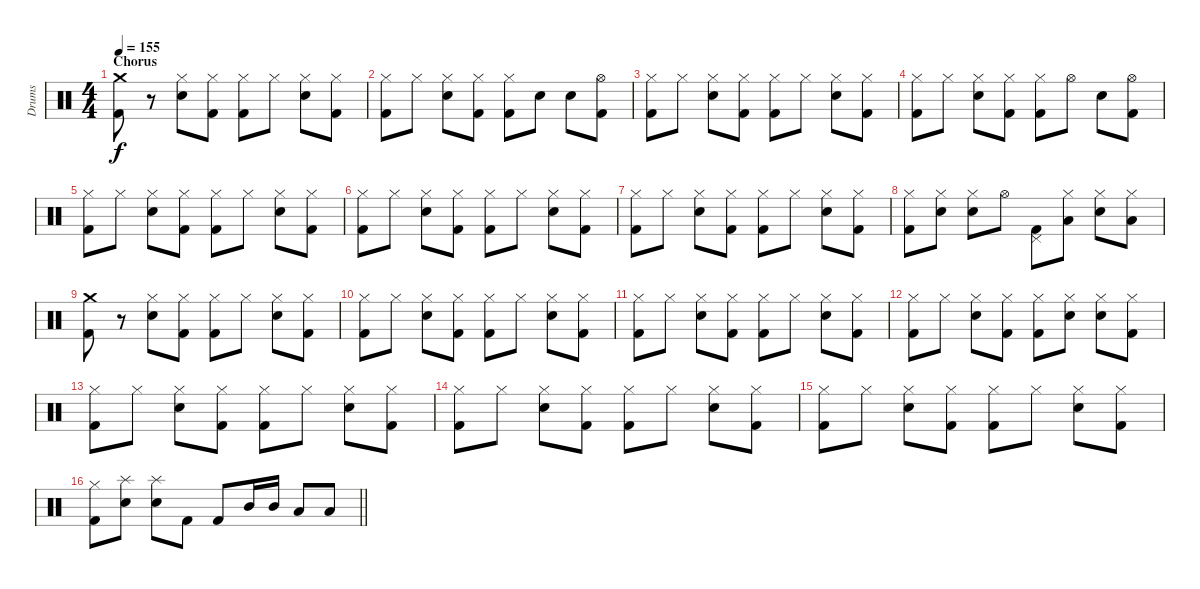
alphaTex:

\track ("Drums" "Drums") {instrument percussion}
\staff {score}
\articulation defaults
\ts (4 4)
\section ("" "Chorus")
\tempo 155
\clef neutral
\ks c
("Crash medium (hit)" "Kick (hit) 2").8{dy f} r.8 ("Hi-Hat (closed)" "Snare (hit) 2").8 ("Hi-Hat (closed)" "Kick (hit) 2").8 ("Hi-Hat (closed)" "Kick (hit) 2").8 "Hi-Hat (closed)".8 ("Hi-Hat (closed)" "Snare (hit) 2").8 ("Hi-Hat (closed)" "Kick (hit) 2").8 |
("Hi-Hat (closed)" "Kick (hit) 2").8 "Hi-Hat (closed)".8 ("Hi-Hat (closed)" "Snare (hit) 2").8 ("Hi-Hat (closed)" "Kick (hit) 2").8 ("Hi-Hat (closed)" "Kick (hit) 2").8 "Snare (hit) 2".8 "Snare (hit) 2".8 ("Hi-Hat (open)" "Kick (hit) 2").8 |
("Hi-Hat (closed)" "Kick (hit) 2").8 "Hi-Hat (closed)".8 ("Hi-Hat (closed)" "Snare (hit) 2").8 ("Hi-Hat (closed)" "Kick (hit) 2").8 ("Hi-Hat (closed)" "Kick (hit) 2").8 "Hi-Hat (closed)".8 ("Hi-Hat (closed)" "Snare (hit) 2").8 ("Hi-Hat (closed)" "Kick (hit) 2").8 |
("Hi-Hat (closed)" "Kick (hit) 2").8 "Hi-Hat (closed)".8 ("Hi-Hat (closed)" "Snare (hit) 2").8 ("Hi-Hat (closed)" "Kick (hit) 2").8 ("Hi-Hat (closed)" "Kick (hit) 2").8 "Hi-Hat (open)".8 "Snare (hit) 2".8 ("Hi-Hat (open)" "Kick (hit) 2").8 |
("Hi-Hat (closed)" "Kick (hit) 2").8 "Hi-Hat (closed)".8 ("Hi-Hat (closed)" "Snare (hit) 2").8 ("Hi-Hat (closed)" "Kick (hit) 2").8 ("Hi-Hat (closed)" "Kick (hit) 2").8 "Hi-Hat (closed)".8 ("Hi-Hat (closed)" "Snare (hit) 2").8 ("Hi-Hat (closed)" "Kick (hit) 2").8 |
("Hi-Hat (closed)" "Kick (hit) 2").8 "Hi-Hat (closed)".8 ("Hi-Hat (closed)" "Snare (hit) 2").8 ("Hi-Hat (closed)" "Kick (hit) 2").8 ("Hi-Hat (closed)" "Kick (hit) 2").8 "Hi-Hat (closed)".8 ("Hi-Hat (closed)" "Snare (hit) 2").8 ("Hi-Hat (closed)" "Kick (hit) 2").8 |
("Hi-Hat (closed)" "Kick (hit) 2").8 "Hi-Hat (closed)".8 ("Hi-Hat (closed)" "Snare (hit) 2").8 ("Hi-Hat (closed)" "Kick (hit) 2").8 ("Hi-Hat (closed)" "Kick (hit) 2").8 "Hi-Hat (closed)".8 ("Hi-Hat (closed)" "Snare (hit) 2").8 ("Hi-Hat (closed)" "Kick (hit) 2").8 |
("Hi-Hat (closed)" "Kick (hit) 2").8 ("Hi-Hat (closed)" "Snare (hit) 2").8 ("Hi-Hat (closed)" "Snare (hit) 2").8 "Hi-Hat (open)".8 ("Pedal Hi-Hat (hit)" "Kick (hit) 2").8 ("Hi-Hat (closed)" "Low Tom (hit)").8 ("Hi-Hat (closed)" "Snare (hit) 2").8 ("Hi-Hat (closed)" "Low Tom (hit)").8 |
("Crash medium (hit)" "Kick (hit) 2").8 r.8 ("Hi-Hat (closed)" "Snare (hit) 2").8 ("Hi-Hat (closed)" "Kick (hit) 2").8 ("Hi-Hat (closed)" "Kick (hit) 2").8 "Hi-Hat (closed)".8 ("Hi-Hat (closed)" "Snare (hit) 2").8 ("Hi-Hat (closed)" "Kick (hit) 2").8 |
("Hi-Hat (closed)" "Kick (hit) 2").8 "Hi-Hat (closed)".8 ("Hi-Hat (closed)" "Snare (hit) 2").8 ("Hi-Hat (closed)" "Kick (hit) 2").8 ("Hi-Hat (closed)" "Kick (hit) 2").8 "Hi-Hat (closed)".8 ("Hi-Hat (closed)" "Snare (hit) 2").8 ("Hi-Hat (closed)" "Kick (hit) 2").8 |
("Hi-Hat (closed)" "Kick (hit) 2").8 "Hi-Hat (closed)".8 ("Hi-Hat (closed)" "Snare (hit) 2").8 ("Hi-Hat (closed)" "Kick (hit) 2").8 ("Hi-Hat (closed)" "Kick (hit) 2").8 "Hi-Hat (closed)".8 ("Hi-Hat (closed)" "Snare (hit) 2").8 ("Hi-Hat (closed)" "Kick (hit) 2").8 |
("Hi-Hat (closed)" "Kick (hit) 2").8 "Hi-Hat (closed)".8 ("Hi-Hat (closed)" "Snare (hit) 2").8 ("Hi-Hat (closed)" "Kick (hit) 2").8 ("Hi-Hat (closed)" "Kick (hit) 2").8 ("Hi-Hat (closed)" "Hand Clap (hit)").8 ("Hi-Hat (closed)" "Snare (hit) 2").8 ("Hi-Hat (closed)" "Kick (hit) 2").8 |
("Hi-Hat (closed)" "Kick (hit) 2").8 "Hi-Hat (closed)".8 ("Hi-Hat (closed)" "Snare (hit) 2").8 ("Hi-Hat (closed)" "Kick (hit) 2").8 ("Hi-Hat (closed)" "Kick (hit) 2").8 "Hi-Hat (closed)".8 ("Hi-Hat (closed)" "Snare (hit) 2").8 ("Hi-Hat (closed)" "Kick (hit) 2").8 |
("Hi-Hat (closed)" "Kick (hit) 2").8 "Hi-Hat (closed)".8 ("Hi-Hat (closed)" "Snare (hit) 2").8 ("Hi-Hat (closed)" "Kick (hit) 2").8 ("Hi-Hat (closed)" "Kick (hit) 2").8 "Hi-Hat (closed)".8 ("Hi-Hat (closed)" "Snare (hit) 2").8 ("Hi-Hat (closed)" "Kick (hit) 2").8 |
("Hi-Hat (closed)" "Kick (hit) 2").8 "Hi-Hat (closed)".8 ("Hi-Hat (closed)" "Snare (hit) 2").8 ("Hi-Hat (closed)" "Kick (hit) 2").8 ("Hi-Hat (closed)" "Kick (hit) 2").8 "Hi-Hat (closed)".8 ("Hi-Hat (closed)" "Snare (hit) 2").8 ("Hi-Hat (closed)" "Kick (hit) 2").8 |
\barLineRight lightlight
("Hi-Hat (closed)" "Kick (hit) 2").8 ("Splash (hit)" "Snare (hit) 2").8 ("Splash (hit)" "Snare (hit) 2").8 "Kick (hit) 2".8 "Kick (hit) 2".8 "Mid Tom (hit)".16 "Mid Tom (hit)".16 "Low Tom (hit)".8 "Low Floor Tom (hit)".8
